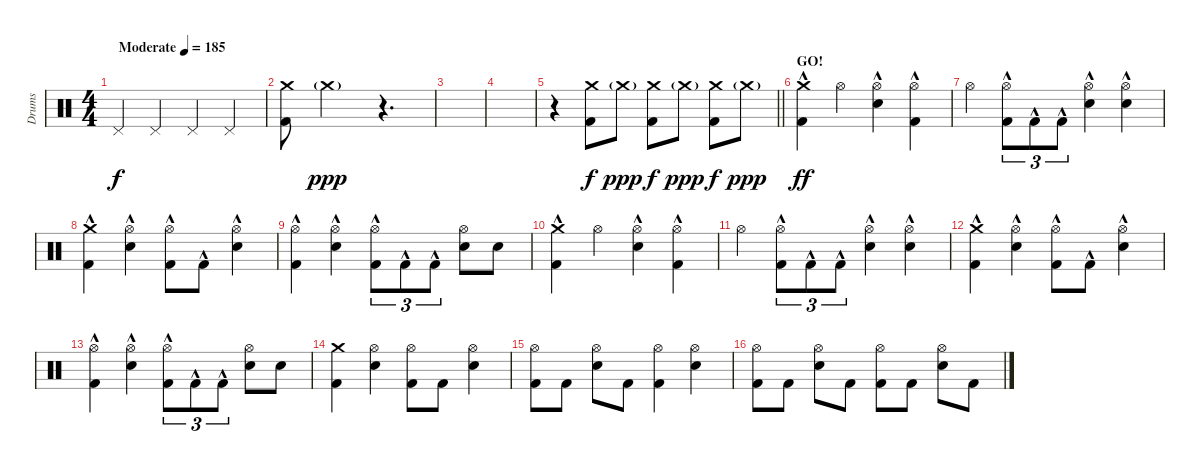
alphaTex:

\track ("Drums" "Drums") {instrument percussion}
\staff {score}
\articulation defaults
\ts (4 4)
\tempo (185 "Moderate")
\clef neutral
\ks c "Pedal Hi-Hat (hit)".4{dy f} "Pedal Hi-Hat (hit)".4 "Pedal Hi-Hat (hit)".4 "Pedal Hi-Hat (hit)".4
|
("Crash medium (hit)" "Kick (hit) 2").8 "Crash medium (hit)"{g}.2{dy ppp} r.4{d} |
|
|
\barLineRight lightlight
r.4 ("Crash medium (hit)" "Kick (hit) 2").8{dy f} "Crash medium (hit)"{g}.8{dy ppp} ("Crash medium (hit)" "Kick (hit) 2").8{dy f} "Crash medium (hit)"{g}.8{dy ppp} ("Crash medium (hit)" "Kick (hit) 2").8{dy f} "Crash medium (hit)"{g}.8{dy ppp} |
\section ("" "GO!")
("Crash medium (hit)" "Kick (hit) 2"{hac}).4{dy ff} "Hi-Hat (open)".4 ("Hi-Hat (open)" "Electric Snare (hit)"{hac}).4 ("Hi-Hat (open)" "Kick (hit) 2"{hac}).4 |
"Hi-Hat (open)".4 ("Hi-Hat (open)" "Kick (hit) 2"{hac}).8{tu (3 2)} "Kick (hit) 2"{hac}.8{tu (3 2)} "Kick (hit) 2"{hac}.8{tu (3 2)} ("Hi-Hat (open)" "Electric Snare (hit)"{hac}).4 ("Hi-Hat (open)" "Electric Snare (hit)"{hac}).4 |
("Crash medium (hit)" "Kick (hit) 2"{hac}).4 ("Hi-Hat (open)" "Electric Snare (hit)"{hac}).4 ("Hi-Hat (open)" "Kick (hit) 2"{hac}).8 "Kick (hit) 2"{hac}.8 ("Hi-Hat (open)" "Electric Snare (hit)"{hac}).4 |
("Hi-Hat (open)" "Kick (hit) 2"{hac}).4 ("Hi-Hat (open)" "Electric Snare (hit)"{hac}).4 ("Hi-Hat (open)" "Kick (hit) 2"{hac}).8{tu (3 2)} "Kick (hit) 2"{hac}.8{tu (3 2)} "Kick (hit) 2"{hac}.8{tu (3 2)} ("Hi-Hat (open)" "Electric Snare (hit)").8 "Electric Snare (hit)".8 |
("Crash medium (hit)" "Kick (hit) 2"{hac}).4 "Hi-Hat (open)".4 ("Hi-Hat (open)" "Electric Snare (hit)"{hac}).4 ("Hi-Hat (open)" "Kick (hit) 2"{hac}).4 |
"Hi-Hat (open)".4 ("Hi-Hat (open)" "Kick (hit) 2"{hac}).8{tu (3 2)} "Kick (hit) 2"{hac}.8{tu (3 2)} "Kick (hit) 2"{hac}.8{tu (3 2)} ("Hi-Hat (open)" "Electric Snare (hit)"{hac}).4 ("Hi-Hat (open)" "Electric Snare (hit)"{hac}).4 |
("Crash medium (hit)" "Kick (hit) 2"{hac}).4 ("Hi-Hat (open)" "Electric Snare (hit)"{hac}).4 ("Hi-Hat (open)" "Kick (hit) 2"{hac}).8 "Kick (hit) 2"{hac}.8 ("Hi-Hat (open)" "Electric Snare (hit)"{hac}).4 |
("Hi-Hat (open)" "Kick (hit) 2"{hac}).4 ("Hi-Hat (open)" "Electric Snare (hit)"{hac}).4 ("Hi-Hat (open)" "Kick (hit) 2"{hac}).8{tu (3 2)} "Kick (hit) 2"{hac}.8{tu (3 2)} "Kick (hit) 2"{hac}.8{tu (3 2)} ("Hi-Hat (open)" "Electric Snare (hit)").8 "Electric Snare (hit)".8 |
("Crash medium (hit)" "Kick (hit) 2").4 ("Hi-Hat (open)" "Electric Snare (hit)").4 ("Hi-Hat (open)" "Kick (hit) 2").8 "Kick (hit) 2".8 ("Hi-Hat (open)" "Electric Snare (hit)").4 |
("Hi-Hat (open)" "Kick (hit) 2").8 "Kick (hit) 2".8 ("Hi-Hat (open)" "Electric Snare (hit)").8 "Kick (hit) 2".8 ("Hi-Hat (open)" "Kick (hit) 2").4 ("Hi-Hat (open)" "Electric Snare (hit)").4 |
("Hi-Hat (open)" "Kick (hit) 2").8 "Kick (hit) 2".8 ("Hi-Hat (open)" "Electric Snare (hit)").8 "Kick (hit) 2".8 ("Hi-Hat (open)" "Kick (hit) 2").8 "Kick (hit) 2".8 ("Hi-Hat (open)" "Electric Snare (hit)").8 "Kick (hit) 2".8
